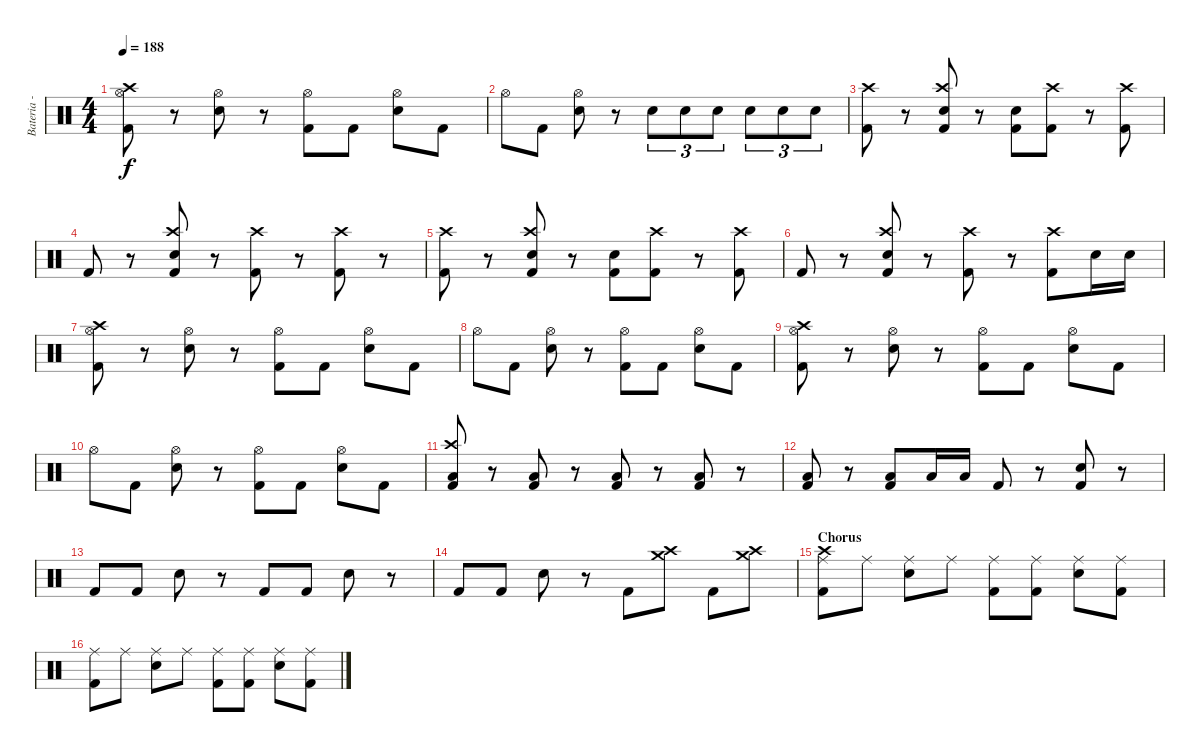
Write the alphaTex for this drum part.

\track ("Bateria - Larzon" "Bateria - ") {instrument percussion}
\staff {score}
\articulation defaults
\ts (4 4)
\tempo 188
\clef neutral
\ks c
("Kick (hit) 2" "Crash high (hit)" "Hi-Hat (open)").8{dy f} r.8 ("Snare (hit) 2" "Hi-Hat (open)").8 r.8 ("Kick (hit) 2" "Hi-Hat (open)").8 "Kick (hit) 2".8 ("Snare (hit) 2" "Hi-Hat (open)").8 "Kick (hit) 2".8 |
"Hi-Hat (open)".8 "Kick (hit) 2".8 ("Snare (hit) 2" "Hi-Hat (open)").8 r.8 "Snare (hit) 2".8{tu (3 2)} "Snare (hit) 2".8{tu (3 2)} "Snare (hit) 2".8{tu (3 2)} "Snare (hit) 2".8{tu (3 2)} "Snare (hit) 2".8{tu (3 2)} "Snare (hit) 2".8{tu (3 2)} |
("Kick (hit) 2" "Crash high (hit)").8 r.8 ("Kick (hit) 2" "Snare (hit) 2" "Crash high (hit)").8 r.8 ("Kick (hit) 2" "Snare (hit) 2").8 ("Kick (hit) 2" "Crash high (hit)").8 r.8 ("Kick (hit) 2" "Crash high (hit)").8 |
"Kick (hit) 2".8 r.8 ("Kick (hit) 2" "Snare (hit) 2" "Crash high (hit)").8 r.8 ("Kick (hit) 2" "Crash high (hit)").8 r.8 ("Kick (hit) 2" "Crash high (hit)").8 r.8 |
("Kick (hit) 2" "Crash high (hit)").8 r.8 ("Kick (hit) 2" "Snare (hit) 2" "Crash high (hit)").8 r.8 ("Kick (hit) 2" "Snare (hit) 2").8 ("Kick (hit) 2" "Crash high (hit)").8 r.8 ("Kick (hit) 2" "Crash high (hit)").8 |
"Kick (hit) 2".8 r.8 ("Kick (hit) 2" "Snare (hit) 2" "Crash high (hit)").8 r.8 ("Kick (hit) 2" "Crash high (hit)").8 r.8 ("Kick (hit) 2" "Crash high (hit)").8 "Snare (hit) 2".16 "Snare (hit) 2".16 |
("Kick (hit) 2" "Crash high (hit)" "Hi-Hat (open)").8 r.8 ("Snare (hit) 2" "Hi-Hat (open)").8 r.8 ("Kick (hit) 2" "Hi-Hat (open)").8 "Kick (hit) 2".8 ("Snare (hit) 2" "Hi-Hat (open)").8 "Kick (hit) 2".8 |
"Hi-Hat (open)".8 "Kick (hit) 2".8 ("Snare (hit) 2" "Hi-Hat (open)").8 r.8 ("Kick (hit) 2" "Hi-Hat (open)").8 "Kick (hit) 2".8 ("Snare (hit) 2" "Hi-Hat (open)").8 "Kick (hit) 2".8 |
("Kick (hit) 2" "Crash high (hit)" "Hi-Hat (open)").8 r.8 ("Snare (hit) 2" "Hi-Hat (open)").8 r.8 ("Kick (hit) 2" "Hi-Hat (open)").8 "Kick (hit) 2".8 ("Snare (hit) 2" "Hi-Hat (open)").8 "Kick (hit) 2".8 |
"Hi-Hat (open)".8 "Kick (hit) 2".8 ("Snare (hit) 2" "Hi-Hat (open)").8 r.8 ("Kick (hit) 2" "Hi-Hat (open)").8 "Kick (hit) 2".8 ("Snare (hit) 2" "Hi-Hat (open)").8 "Kick (hit) 2".8 |
("Kick (hit) 2" "Low Floor Tom (hit)" "Crash high (hit)").8 r.8 ("Kick (hit) 2" "Low Floor Tom (hit)").8 r.8 ("Kick (hit) 2" "Low Floor Tom (hit)").8 r.8 ("Kick (hit) 2" "Low Floor Tom (hit)").8 r.8 |
("Kick (hit) 2" "Low Floor Tom (hit)").8 r.8 ("Kick (hit) 2" "Low Floor Tom (hit)").8 "Low Floor Tom (hit)".16 "Low Floor Tom (hit)".16 "Kick (hit) 2".8 r.8 ("Kick (hit) 2" "Snare (hit) 2").8 r.8 |
"Kick (hit) 2".8 "Kick (hit) 2".8 "Snare (hit) 2".8 r.8 "Kick (hit) 2".8 "Kick (hit) 2".8 "Snare (hit) 2".8 r.8 |
"Kick (hit) 2".8 "Kick (hit) 2".8 "Snare (hit) 2".8 r.8 "Kick (hit) 2".8 ("Crash high (hit)" "Crash medium (hit)").8 "Kick (hit) 2".8 ("Crash high (hit)" "Crash medium (hit)").8 |
\section ("" "Chorus")
("Kick (hit) 2" "Crash high (hit)" "Ride (middle)").8 "Ride (middle)".8 ("Snare (hit) 2" "Ride (middle)").8 "Ride (middle)".8 ("Kick (hit) 2" "Ride (middle)").8 ("Kick (hit) 2" "Ride (middle)").8 ("Snare (hit) 2" "Ride (middle)").8 ("Kick (hit) 2" "Ride (middle)").8 |
("Kick (hit) 2" "Ride (middle)").8 "Ride (middle)".8 ("Snare (hit) 2" "Ride (middle)").8 "Ride (middle)".8 ("Kick (hit) 2" "Ride (middle)").8 ("Kick (hit) 2" "Ride (middle)").8 ("Snare (hit) 2" "Ride (middle)").8 ("Kick (hit) 2" "Ride (middle)").8
